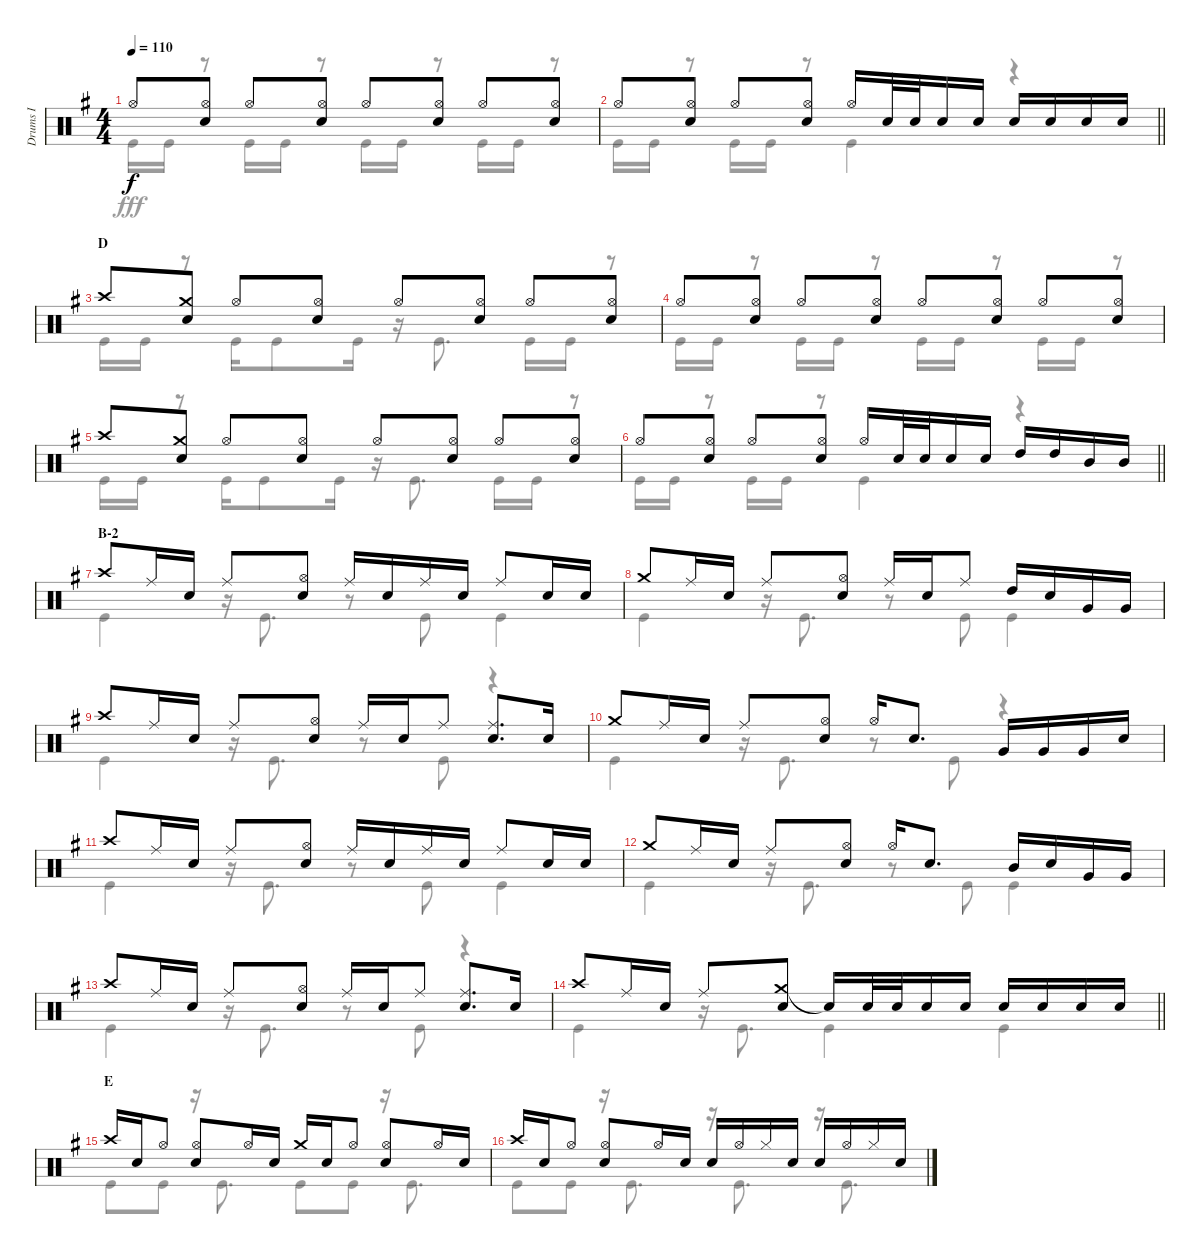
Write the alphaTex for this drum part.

\track ("Drums I" "Drums I") {instrument percussion}
\staff {score}
\articulation defaults
\voice
\ts (4 4)
\tempo 110
\clef neutral
\ks g "Hi-Hat (open)".8{dy f}
("Hi-Hat (open)" "Snare (hit) 2").8 "Hi-Hat (open)".8 ("Hi-Hat (open)" "Snare (hit) 2").8 "Hi-Hat (open)".8 ("Hi-Hat (open)" "Snare (hit) 2").8 "Hi-Hat (open)".8 ("Hi-Hat (open)" "Snare (hit) 2").8 |
\barLineRight lightlight "Hi-Hat (open)".8
("Hi-Hat (open)" "Snare (hit) 2").8 "Hi-Hat (open)".8 ("Hi-Hat (open)" "Snare (hit) 2").8 "Hi-Hat (open)".16 "Snare (hit) 2".32 "Snare (hit) 2".32 "Snare (hit) 2".16 "Snare (hit) 2".16 "Snare (hit) 2".16 "Snare (hit) 2".16 "Snare (hit) 2".16 "Snare (hit) 2".16 |
\section ("" "D")
"Crash high (hit)".8 ("Crash medium (hit)" "Snare (hit) 2").8 "Hi-Hat (open)".8 ("Hi-Hat (open)" "Snare (hit) 2").8 "Hi-Hat (open)".8 ("Hi-Hat (open)" "Snare (hit) 2").8 "Hi-Hat (open)".8 ("Hi-Hat (open)" "Snare (hit) 2").8 |
"Hi-Hat (open)".8 ("Hi-Hat (open)" "Snare (hit) 2").8 "Hi-Hat (open)".8 ("Hi-Hat (open)" "Snare (hit) 2").8 "Hi-Hat (open)".8 ("Hi-Hat (open)" "Snare (hit) 2").8 "Hi-Hat (open)".8 ("Hi-Hat (open)" "Snare (hit) 2").8 |
"Crash high (hit)".8 ("Crash medium (hit)" "Snare (hit) 2").8 "Hi-Hat (open)".8 ("Hi-Hat (open)" "Snare (hit) 2").8 "Hi-Hat (open)".8 ("Hi-Hat (open)" "Snare (hit) 2").8 "Hi-Hat (open)".8 ("Hi-Hat (open)" "Snare (hit) 2").8 |
\barLineRight lightlight "Hi-Hat (open)".8
("Hi-Hat (open)" "Snare (hit) 2").8 "Hi-Hat (open)".8 ("Hi-Hat (open)" "Snare (hit) 2").8 "Hi-Hat (open)".16 "Snare (hit) 2".32 "Snare (hit) 2".32 "Snare (hit) 2".16 "Snare (hit) 2".16 "High Tom (hit)".16 "High Tom (hit)".16 "Mid Tom (hit)".16 "Mid Tom (hit)".16 |
\section ("" "B-2")
"Crash high (hit)".8 "Ride (middle)".16 "Snare (hit) 2".16 "Ride (middle)".8 ("Hi-Hat (open)" "Snare (hit) 2").8 "Ride (middle)".16 "Snare (hit) 2".16 "Ride (middle)".16 "Snare (hit) 2".16 "Ride (middle)".8 "Snare (hit) 2".16 "Snare (hit) 2".16 |
"Crash medium (hit)".8 "Ride (middle)".16 "Snare (hit) 2".16 "Ride (middle)".8 ("Hi-Hat (open)" "Snare (hit) 2").8 "Ride (middle)".16 "Snare (hit) 2".16 "Ride (middle)".8 "High Tom (hit)".16 "Snare (hit) 2".16 "Very Low Tom (hit)".16 "Very Low Tom (hit)".16 |
"Crash high (hit)".8 "Ride (middle)".16 "Snare (hit) 2".16 "Ride (middle)".8 ("Hi-Hat (open)" "Snare (hit) 2").8 "Ride (middle)".16 "Snare (hit) 2".16 "Ride (middle)".8 ("Ride (middle)" "Snare (hit) 2").8{d} "Snare (hit) 2".16 |
"Crash medium (hit)".8 "Ride (middle)".16 "Snare (hit) 2".16 "Ride (middle)".8 ("Hi-Hat (open)" "Snare (hit) 2").8 "Hi-Hat (open)".16 "Snare (hit) 2".8{d} "Very Low Tom (hit)".16 "Very Low Tom (hit)".16 "Very Low Tom (hit)".16 "Snare (hit) 2".16 |
"Crash high (hit)".8 "Ride (middle)".16 "Snare (hit) 2".16 "Ride (middle)".8 ("Hi-Hat (open)" "Snare (hit) 2").8 "Ride (middle)".16 "Snare (hit) 2".16 "Ride (middle)".16 "Snare (hit) 2".16 "Ride (middle)".8 "Snare (hit) 2".16 "Snare (hit) 2".16 |
"Crash medium (hit)".8 "Ride (middle)".16 "Snare (hit) 2".16 "Ride (middle)".8 ("Hi-Hat (open)" "Snare (hit) 2").8 "Hi-Hat (open)".16 "Snare (hit) 2".8{d} "Mid Tom (hit)".16 "Snare (hit) 2".16 "Very Low Tom (hit)".16 "Very Low Tom (hit)".16 |
"Crash high (hit)".8 "Ride (middle)".16 "Snare (hit) 2".16 "Ride (middle)".8 ("Hi-Hat (open)" "Snare (hit) 2").8 "Ride (middle)".16 "Snare (hit) 2".16 "Ride (middle)".8 ("Ride (middle)" "Snare (hit) 2").8{d} "Snare (hit) 2".16 |
\barLineRight lightlight "Crash high (hit)".8 "Ride (middle)".16 "Snare (hit) 2".16 "Ride (middle)".8
("Crash medium (hit)" "Snare (hit) 2").8 "Snare (hit)"{t}.16 "Snare (hit) 2".32 "Snare (hit) 2".32 "Snare (hit) 2".16 "Snare (hit) 2".16 "Snare (hit) 2".16 "Snare (hit) 2".16 "Snare (hit) 2".16 "Snare (hit) 2".16 |
\section ("" "E")
"Crash high (hit)".16 "Snare (hit) 2".16 "Hi-Hat (open)".8 ("Hi-Hat (open)" "Snare (hit) 2").8 "Hi-Hat (open)".16 "Snare (hit) 2".16 "Crash medium (hit)".16 "Snare (hit) 2".16 "Hi-Hat (open)".8 ("Hi-Hat (open)" "Snare (hit) 2").8 "Hi-Hat (open)".16 "Snare (hit) 2".16 |
"Crash high (hit)".16 "Snare (hit) 2".16 "Hi-Hat (open)".8 ("Hi-Hat (open)" "Snare (hit) 2").8 "Hi-Hat (open)".16 "Snare (hit) 2".16 "Snare (hit) 2".16 "Hi-Hat (open)".16 "Hi-Hat (closed)".16 "Snare (hit) 2".16 "Snare (hit) 2".16 "Hi-Hat (open)".16 "Hi-Hat (closed)".16 "Snare (hit) 2".16
\voice
\clef neutral
\ottava regular
\simile none
\ks g "Kick (hit)".16{dy fff} "Kick (hit)".16
r.8 "Kick (hit)".16 "Kick (hit)".16 r.8 "Kick (hit)".16 "Kick (hit)".16 r.8 "Kick (hit)".16 "Kick (hit)".16 r.8 |
\barLineRight lightlight "Kick (hit)".16 "Kick (hit)".16
r.8 "Kick (hit)".16 "Kick (hit)".16 r.8 "Kick (hit)".4 r.4 |
"Kick (hit)".16 "Kick (hit)".16 r.8 "Kick (hit)".16 "Kick (hit)".8 "Kick (hit)".16 r.16 "Kick (hit)".8{d} "Kick (hit)".16 "Kick (hit)".16 r.8 |
"Kick (hit)".16 "Kick (hit)".16 r.8 "Kick (hit)".16 "Kick (hit)".16 r.8 "Kick (hit)".16 "Kick (hit)".16 r.8 "Kick (hit)".16 "Kick (hit)".16 r.8 |
"Kick (hit)".16 "Kick (hit)".16 r.8 "Kick (hit)".16 "Kick (hit)".8 "Kick (hit)".16 r.16 "Kick (hit)".8{d} "Kick (hit)".16 "Kick (hit)".16 r.8 |
\barLineRight lightlight "Kick (hit)".16 "Kick (hit)".16
r.8 "Kick (hit)".16 "Kick (hit)".16 r.8 "Kick (hit)".4 r.4 |
"Kick (hit)".4 r.16 "Kick (hit)".8{d} r.8 "Kick (hit)".8 "Kick (hit)".4 |
"Kick (hit)".4 r.16 "Kick (hit)".8{d} r.8 "Kick (hit)".8 "Kick (hit)".4 |
"Kick (hit)".4 r.16 "Kick (hit)".8{d} r.8 "Kick (hit)".8 r.4 |
"Kick (hit)".4 r.16 "Kick (hit)".8{d} r.8 "Kick (hit)".8 r.4 |
"Kick (hit)".4 r.16 "Kick (hit)".8{d} r.8 "Kick (hit)".8 "Kick (hit)".4 |
"Kick (hit)".4 r.16 "Kick (hit)".8{d} r.8 "Kick (hit)".8 "Kick (hit)".4 |
"Kick (hit)".4 r.16 "Kick (hit)".8{d} r.8 "Kick (hit)".8 r.4 |
\barLineRight lightlight "Kick (hit)".4
r.16 "Kick (hit)".8{d} "Kick (hit)".4 "Kick (hit)".4 |
"Kick (hit)".8 "Kick (hit)".8 r.16 "Kick (hit)".8{d} "Kick (hit)".8 "Kick (hit)".8 r.16 "Kick (hit)".8{d} |
"Kick (hit)".8 "Kick (hit)".8 r.16 "Kick (hit)".8{d} r.16 "Kick (hit)".8{d} r.16 "Kick (hit)".8{d}
